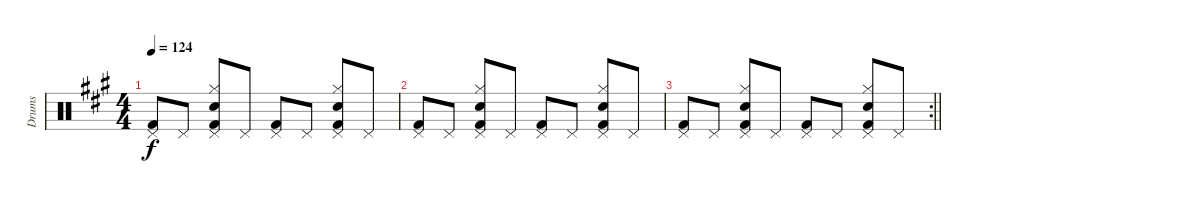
\track ("Drums" "Drums") {instrument percussion}
\staff {score}
\articulation defaults
\ts (4 4)
\tempo 124
\clef neutral
\ks a
("Pedal Hi-Hat (hit)" "Kick (hit) 2").8{dy f} "Pedal Hi-Hat (hit)".8 ("Hi-Hat (closed)" "Snare (hit) 2" "Pedal Hi-Hat (hit)" "Kick (hit) 2").8 "Pedal Hi-Hat (hit)".8 ("Pedal Hi-Hat (hit)" "Kick (hit) 2").8 "Pedal Hi-Hat (hit)".8 ("Hi-Hat (closed)" "Snare (hit) 2" "Pedal Hi-Hat (hit)" "Kick (hit) 2").8 "Pedal Hi-Hat (hit)".8 |
("Pedal Hi-Hat (hit)" "Kick (hit) 2").8 "Pedal Hi-Hat (hit)".8 ("Hi-Hat (closed)" "Snare (hit) 2" "Pedal Hi-Hat (hit)" "Kick (hit) 2").8 "Pedal Hi-Hat (hit)".8 ("Pedal Hi-Hat (hit)" "Kick (hit) 2").8 "Pedal Hi-Hat (hit)".8 ("Hi-Hat (closed)" "Snare (hit) 2" "Pedal Hi-Hat (hit)" "Kick (hit) 2").8 "Pedal Hi-Hat (hit)".8 |
\rc 2
\barLineRight lightlight
("Pedal Hi-Hat (hit)" "Kick (hit) 2").8 "Pedal Hi-Hat (hit)".8 ("Hi-Hat (closed)" "Snare (hit) 2" "Pedal Hi-Hat (hit)" "Kick (hit) 2").8 "Pedal Hi-Hat (hit)".8 ("Pedal Hi-Hat (hit)" "Kick (hit) 2").8 "Pedal Hi-Hat (hit)".8 ("Hi-Hat (closed)" "Snare (hit) 2" "Pedal Hi-Hat (hit)" "Kick (hit) 2").8 "Pedal Hi-Hat (hit)".8
